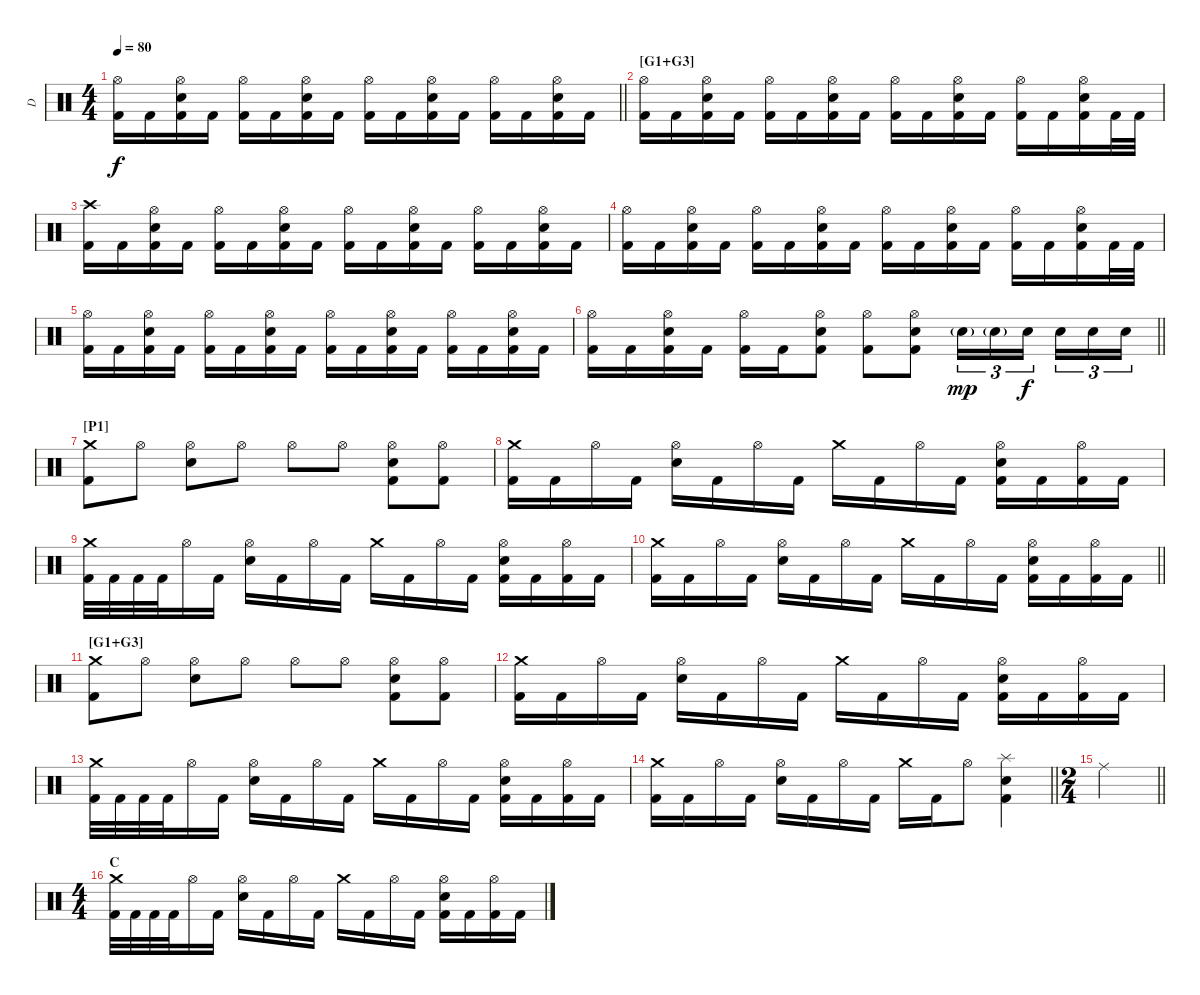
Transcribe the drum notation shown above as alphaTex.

\track ("D" "D") {instrument percussion}
\staff {score}
\articulation defaults
\ts (4 4)
\tempo 80
\clef neutral
\barLineRight lightlight
\ks c
("Hi-Hat (open)" "Kick (hit) 2").16{dy f} "Kick (hit) 2".16 ("Hi-Hat (open)" "Electric Snare (hit)" "Kick (hit) 2").16 "Kick (hit) 2".16 ("Hi-Hat (open)" "Kick (hit) 2").16 "Kick (hit) 2".16 ("Hi-Hat (open)" "Electric Snare (hit)" "Kick (hit) 2").16 "Kick (hit) 2".16 ("Hi-Hat (open)" "Kick (hit) 2").16 "Kick (hit) 2".16 ("Hi-Hat (open)" "Electric Snare (hit)" "Kick (hit) 2").16 "Kick (hit) 2".16 ("Hi-Hat (open)" "Kick (hit) 2").16 "Kick (hit) 2".16 ("Hi-Hat (open)" "Electric Snare (hit)" "Kick (hit) 2").16 "Kick (hit) 2".16 |
\section ("" "[G1+G3]")
("Hi-Hat (open)" "Kick (hit) 2").16 "Kick (hit) 2".16 ("Hi-Hat (open)" "Electric Snare (hit)" "Kick (hit) 2").16 "Kick (hit) 2".16 ("Hi-Hat (open)" "Kick (hit) 2").16 "Kick (hit) 2".16 ("Hi-Hat (open)" "Electric Snare (hit)" "Kick (hit) 2").16 "Kick (hit) 2".16 ("Hi-Hat (open)" "Kick (hit) 2").16 "Kick (hit) 2".16 ("Hi-Hat (open)" "Electric Snare (hit)" "Kick (hit) 2").16 "Kick (hit) 2".16 ("Hi-Hat (open)" "Kick (hit) 2").16 "Kick (hit) 2".16 ("Hi-Hat (open)" "Electric Snare (hit)" "Kick (hit) 2").16 "Kick (hit) 2".32 "Kick (hit) 2".32 |
("Crash high (hit)" "Kick (hit) 2").16 "Kick (hit) 2".16 ("Hi-Hat (open)" "Electric Snare (hit)" "Kick (hit) 2").16 "Kick (hit) 2".16 ("Hi-Hat (open)" "Kick (hit) 2").16 "Kick (hit) 2".16 ("Hi-Hat (open)" "Electric Snare (hit)" "Kick (hit) 2").16 "Kick (hit) 2".16 ("Hi-Hat (open)" "Kick (hit) 2").16 "Kick (hit) 2".16 ("Hi-Hat (open)" "Electric Snare (hit)" "Kick (hit) 2").16 "Kick (hit) 2".16 ("Hi-Hat (open)" "Kick (hit) 2").16 "Kick (hit) 2".16 ("Hi-Hat (open)" "Electric Snare (hit)" "Kick (hit) 2").16 "Kick (hit) 2".16 |
("Hi-Hat (open)" "Kick (hit) 2").16 "Kick (hit) 2".16 ("Hi-Hat (open)" "Electric Snare (hit)" "Kick (hit) 2").16 "Kick (hit) 2".16 ("Hi-Hat (open)" "Kick (hit) 2").16 "Kick (hit) 2".16 ("Hi-Hat (open)" "Electric Snare (hit)" "Kick (hit) 2").16 "Kick (hit) 2".16 ("Hi-Hat (open)" "Kick (hit) 2").16 "Kick (hit) 2".16 ("Hi-Hat (open)" "Electric Snare (hit)" "Kick (hit) 2").16 "Kick (hit) 2".16 ("Hi-Hat (open)" "Kick (hit) 2").16 "Kick (hit) 2".16 ("Hi-Hat (open)" "Electric Snare (hit)" "Kick (hit) 2").16 "Kick (hit) 2".32 "Kick (hit) 2".32 |
("Hi-Hat (open)" "Kick (hit) 2").16 "Kick (hit) 2".16 ("Hi-Hat (open)" "Electric Snare (hit)" "Kick (hit) 2").16 "Kick (hit) 2".16 ("Hi-Hat (open)" "Kick (hit) 2").16 "Kick (hit) 2".16 ("Hi-Hat (open)" "Electric Snare (hit)" "Kick (hit) 2").16 "Kick (hit) 2".16 ("Hi-Hat (open)" "Kick (hit) 2").16 "Kick (hit) 2".16 ("Hi-Hat (open)" "Electric Snare (hit)" "Kick (hit) 2").16 "Kick (hit) 2".16 ("Hi-Hat (open)" "Kick (hit) 2").16 "Kick (hit) 2".16 ("Hi-Hat (open)" "Electric Snare (hit)" "Kick (hit) 2").16 "Kick (hit) 2".16 |
\barLineRight lightlight
("Hi-Hat (open)" "Kick (hit) 2").16 "Kick (hit) 2".16 ("Hi-Hat (open)" "Electric Snare (hit)" "Kick (hit) 2").16 "Kick (hit) 2".16 ("Hi-Hat (open)" "Kick (hit) 2").16 "Kick (hit) 2".16 ("Hi-Hat (open)" "Electric Snare (hit)" "Kick (hit) 2").8 ("Hi-Hat (open)" "Kick (hit) 2").8 ("Hi-Hat (open)" "Electric Snare (hit)" "Kick (hit) 2").8 "Electric Snare (hit)"{g}.16{tu (3 2) dy mp} "Electric Snare (hit)"{g}.16{tu (3 2)} "Electric Snare (hit)".16{tu (3 2) dy f beam splitsecondary} "Electric Snare (hit)".16{tu (3 2)} "Electric Snare (hit)".16{tu (3 2)} "Electric Snare (hit)".16{tu (3 2)} |
\section ("" "[P1]")
("Crash medium (hit)" "Kick (hit) 2").8 "Hi-Hat (open)".8 ("Hi-Hat (open)" "Electric Snare (hit)").8 "Hi-Hat (open)".8 "Hi-Hat (open)".8 "Hi-Hat (open)".8 ("Hi-Hat (open)" "Electric Snare (hit)" "Kick (hit) 2").8 ("Hi-Hat (open)" "Kick (hit) 2").8 |
("Crash medium (hit)" "Kick (hit) 2").16 "Kick (hit) 2".16 "Hi-Hat (open)".16 "Kick (hit) 2".16 ("Hi-Hat (open)" "Electric Snare (hit)").16 "Kick (hit) 2".16 "Hi-Hat (open)".16 "Kick (hit) 2".16 "Crash medium (hit)".16 "Kick (hit) 2".16 "Hi-Hat (open)".16 "Kick (hit) 2".16 ("Hi-Hat (open)" "Electric Snare (hit)" "Kick (hit) 2").16 "Kick (hit) 2".16 ("Hi-Hat (open)" "Kick (hit) 2").16 "Kick (hit) 2".16 |
("Crash medium (hit)" "Kick (hit) 2").32 "Kick (hit) 2".32 "Kick (hit) 2".32 "Kick (hit) 2".32 "Hi-Hat (open)".16 "Kick (hit) 2".16 ("Hi-Hat (open)" "Electric Snare (hit)").16 "Kick (hit) 2".16 "Hi-Hat (open)".16 "Kick (hit) 2".16 "Crash medium (hit)".16 "Kick (hit) 2".16 "Hi-Hat (open)".16 "Kick (hit) 2".16 ("Hi-Hat (open)" "Electric Snare (hit)" "Kick (hit) 2").16 "Kick (hit) 2".16 ("Hi-Hat (open)" "Kick (hit) 2").16 "Kick (hit) 2".16 |
\barLineRight lightlight
("Crash medium (hit)" "Kick (hit) 2").16 "Kick (hit) 2".16 "Hi-Hat (open)".16 "Kick (hit) 2".16 ("Hi-Hat (open)" "Electric Snare (hit)").16 "Kick (hit) 2".16 "Hi-Hat (open)".16 "Kick (hit) 2".16 "Crash medium (hit)".16 "Kick (hit) 2".16 "Hi-Hat (open)".16 "Kick (hit) 2".16 ("Hi-Hat (open)" "Electric Snare (hit)" "Kick (hit) 2").16 "Kick (hit) 2".16 ("Hi-Hat (open)" "Kick (hit) 2").16 "Kick (hit) 2".16 |
\section ("" "[G1+G3]")
("Crash medium (hit)" "Kick (hit) 2").8 "Hi-Hat (open)".8 ("Hi-Hat (open)" "Electric Snare (hit)").8 "Hi-Hat (open)".8 "Hi-Hat (open)".8 "Hi-Hat (open)".8 ("Hi-Hat (open)" "Electric Snare (hit)" "Kick (hit) 2").8 ("Hi-Hat (open)" "Kick (hit) 2").8 |
("Crash medium (hit)" "Kick (hit) 2").16 "Kick (hit) 2".16 "Hi-Hat (open)".16 "Kick (hit) 2".16 ("Hi-Hat (open)" "Electric Snare (hit)").16 "Kick (hit) 2".16 "Hi-Hat (open)".16 "Kick (hit) 2".16 "Crash medium (hit)".16 "Kick (hit) 2".16 "Hi-Hat (open)".16 "Kick (hit) 2".16 ("Hi-Hat (open)" "Electric Snare (hit)" "Kick (hit) 2").16 "Kick (hit) 2".16 ("Hi-Hat (open)" "Kick (hit) 2").16 "Kick (hit) 2".16 |
("Crash medium (hit)" "Kick (hit) 2").32 "Kick (hit) 2".32 "Kick (hit) 2".32 "Kick (hit) 2".32 "Hi-Hat (open)".16 "Kick (hit) 2".16 ("Hi-Hat (open)" "Electric Snare (hit)").16 "Kick (hit) 2".16 "Hi-Hat (open)".16 "Kick (hit) 2".16 "Crash medium (hit)".16 "Kick (hit) 2".16 "Hi-Hat (open)".16 "Kick (hit) 2".16 ("Hi-Hat (open)" "Electric Snare (hit)" "Kick (hit) 2").16 "Kick (hit) 2".16 ("Hi-Hat (open)" "Kick (hit) 2").16 "Kick (hit) 2".16 |
\barLineRight lightlight
("Crash medium (hit)" "Kick (hit) 2").16 "Kick (hit) 2".16 "Hi-Hat (open)".16 "Kick (hit) 2".16 ("Hi-Hat (open)" "Electric Snare (hit)").16 "Kick (hit) 2".16 "Hi-Hat (open)".16 "Kick (hit) 2".16 "Crash medium (hit)".16 "Kick (hit) 2".16 "Hi-Hat (open)".8 ("Splash (hit)" "Electric Snare (hit)" "Kick (hit) 2").4 |
\ts (2 4)
\section ("" "")
\barLineRight lightlight "Ride (middle)".2
|
\ts (4 4)
\section ("" "C")
("Crash medium (hit)" "Kick (hit) 2").32 "Kick (hit) 2".32 "Kick (hit) 2".32 "Kick (hit) 2".32 "Hi-Hat (open)".16 "Kick (hit) 2".16 ("Hi-Hat (open)" "Electric Snare (hit)").16 "Kick (hit) 2".16 "Hi-Hat (open)".16 "Kick (hit) 2".16 "Crash medium (hit)".16 "Kick (hit) 2".16 "Hi-Hat (open)".16 "Kick (hit) 2".16 ("Hi-Hat (open)" "Electric Snare (hit)" "Kick (hit) 2").16 "Kick (hit) 2".16 ("Hi-Hat (open)" "Kick (hit) 2").16 "Kick (hit) 2".16
